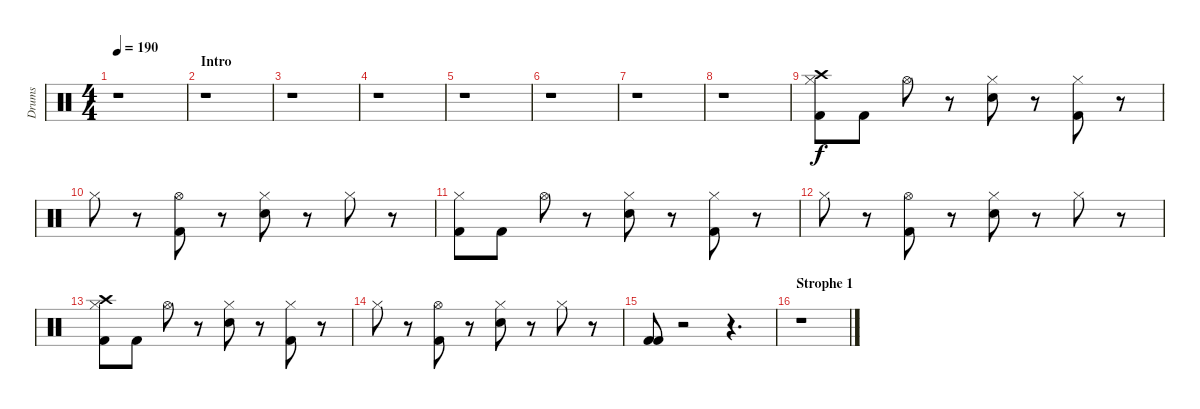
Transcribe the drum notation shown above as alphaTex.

\track ("Drums" "Drums") {instrument percussion}
\staff {score}
\articulation defaults
\ts (4 4)
\tempo 190
\clef neutral
\ks c
r.1{dy f} |
\section ("" "Intro")
r.1 |
r.1 |
r.1 |
r.1 |
r.1 |
r.1 |
r.1 |
("Crash high (hit)" "Hi-Hat (closed)" "Kick (hit) 2").8 "Kick (hit) 2".8 "Hi-Hat (open)".8 r.8 ("Hi-Hat (closed)" "Electric Snare (hit)").8 r.8 ("Hi-Hat (closed)" "Kick (hit) 2").8 r.8 |
"Hi-Hat (closed)".8 r.8 ("Hi-Hat (open)" "Kick (hit) 2").8 r.8 ("Hi-Hat (closed)" "Electric Snare (hit)").8 r.8 "Hi-Hat (closed)".8 r.8 |
("Hi-Hat (closed)" "Kick (hit) 2").8 "Kick (hit) 2".8 "Hi-Hat (open)".8 r.8 ("Hi-Hat (closed)" "Electric Snare (hit)").8 r.8 ("Hi-Hat (closed)" "Kick (hit) 2").8 r.8 |
"Hi-Hat (closed)".8 r.8 ("Hi-Hat (open)" "Kick (hit) 2").8 r.8 ("Hi-Hat (closed)" "Electric Snare (hit)").8 r.8 "Hi-Hat (closed)".8 r.8 |
("Crash high (hit)" "Hi-Hat (closed)" "Kick (hit) 2").8 "Kick (hit) 2".8 "Hi-Hat (open)".8 r.8 ("Hi-Hat (closed)" "Electric Snare (hit)").8 r.8 ("Hi-Hat (closed)" "Kick (hit) 2").8 r.8 |
"Hi-Hat (closed)".8 r.8 ("Hi-Hat (open)" "Kick (hit) 2").8 r.8 ("Hi-Hat (closed)" "Electric Snare (hit)").8 r.8 "Hi-Hat (closed)".8 r.8 |
("Kick (hit) 2" "Kick (hit) 2").8 r.2 r.4{d} |
\section ("" "Strophe 1")
r.1
